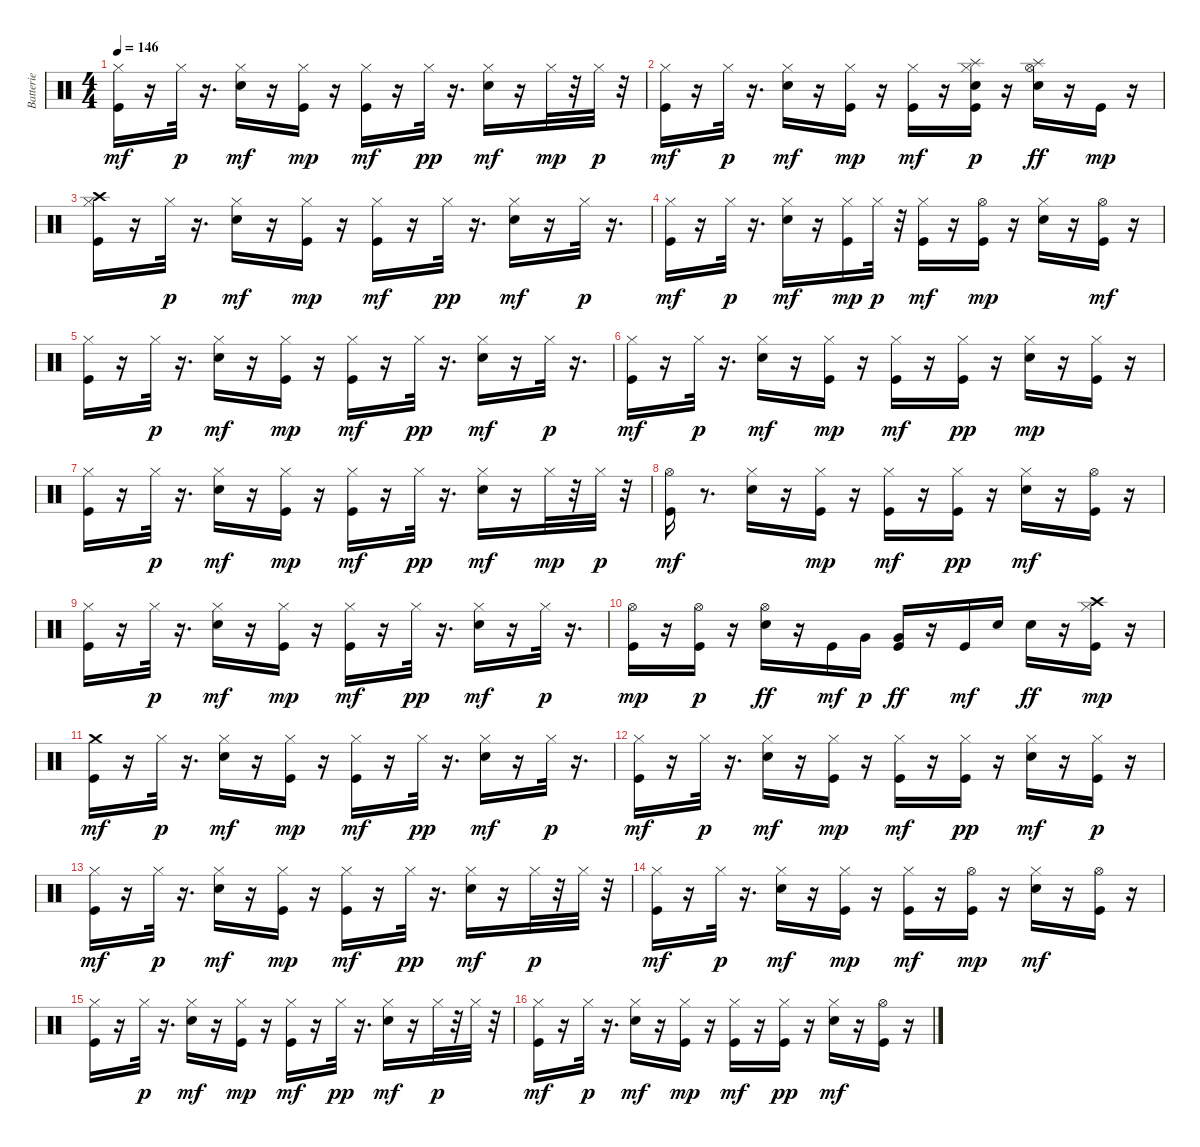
\track ("Batterie" "Batterie") {instrument percussion}
\staff {score}
\articulation defaults
\ts (4 4)
\tempo 146
\clef neutral
\ks c
("Kick (hit)" "Hi-Hat (closed)").16{dy mf} r.16 "Hi-Hat (closed)".32{dy p} r.16{d} ("Electric Snare (hit)" "Hi-Hat (closed)").16{dy mf} r.16 ("Kick (hit)" "Hi-Hat (closed)").16{dy mp} r.16 ("Kick (hit)" "Hi-Hat (closed)").16{dy mf} r.16 "Hi-Hat (closed)".32{dy pp} r.16{d} ("Electric Snare (hit)" "Hi-Hat (closed)").16{dy mf} r.16 "Hi-Hat (closed)".32{dy mp} r.32 "Hi-Hat (closed)".32{dy p} r.32 |
("Kick (hit)" "Hi-Hat (closed)").16{dy mf} r.16 "Hi-Hat (closed)".32{dy p} r.16{d} ("Electric Snare (hit)" "Hi-Hat (closed)").16{dy mf} r.16 ("Kick (hit)" "Hi-Hat (closed)").16{dy mp} r.16 ("Kick (hit)" "Hi-Hat (closed)").16{dy mf} r.16 ("Kick (hit)" "Electric Snare (hit)" "Hi-Hat (closed)" "Splash (hit)").16{dy p} r.16 ("Splash (hit)" "Electric Snare (hit)" "Hi-Hat (open)").16{dy ff} r.16 "Kick (hit)".16{dy mp} r.16 |
("Kick (hit)" "Hi-Hat (closed)" "Crash high (hit)").16 r.16 "Hi-Hat (closed)".32{dy p} r.16{d} ("Electric Snare (hit)" "Hi-Hat (closed)").16{dy mf} r.16 ("Kick (hit)" "Hi-Hat (closed)").16{dy mp} r.16 ("Kick (hit)" "Hi-Hat (closed)").16{dy mf} r.16 "Hi-Hat (closed)".32{dy pp} r.16{d} ("Electric Snare (hit)" "Hi-Hat (closed)").16{dy mf} r.16 "Hi-Hat (closed)".32{dy p} r.16{d} |
("Kick (hit)" "Hi-Hat (closed)").16{dy mf} r.16 "Hi-Hat (closed)".32{dy p} r.16{d} ("Electric Snare (hit)" "Hi-Hat (closed)").16{dy mf} r.16 ("Kick (hit)" "Hi-Hat (closed)").16{dy mp} "Hi-Hat (closed)".32{dy p} r.32 ("Kick (hit)" "Hi-Hat (closed)").16{dy mf} r.16 ("Kick (hit)" "Hi-Hat (open)").16{dy mp} r.16 ("Electric Snare (hit)" "Hi-Hat (closed)").16 r.16 ("Kick (hit)" "Hi-Hat (open)").16{dy mf} r.16 |
("Kick (hit)" "Hi-Hat (closed)").16 r.16 "Hi-Hat (closed)".32{dy p} r.16{d} ("Electric Snare (hit)" "Hi-Hat (closed)").16{dy mf} r.16 ("Kick (hit)" "Hi-Hat (closed)").16{dy mp} r.16 ("Kick (hit)" "Hi-Hat (closed)").16{dy mf} r.16 "Hi-Hat (closed)".32{dy pp} r.16{d} ("Electric Snare (hit)" "Hi-Hat (closed)").16{dy mf} r.16 "Hi-Hat (closed)".32{dy p} r.16{d} |
("Kick (hit)" "Hi-Hat (closed)").16{dy mf} r.16 "Hi-Hat (closed)".32{dy p} r.16{d} ("Electric Snare (hit)" "Hi-Hat (closed)").16{dy mf} r.16 ("Kick (hit)" "Hi-Hat (closed)").16{dy mp} r.16 ("Kick (hit)" "Hi-Hat (closed)").16{dy mf} r.16 ("Kick (hit)" "Hi-Hat (closed)").16{dy pp} r.16 ("Electric Snare (hit)" "Hi-Hat (closed)").16{dy mp} r.16 ("Kick (hit)" "Hi-Hat (closed)").16 r.16 |
("Kick (hit)" "Hi-Hat (closed)").16 r.16 "Hi-Hat (closed)".32{dy p} r.16{d} ("Electric Snare (hit)" "Hi-Hat (closed)").16{dy mf} r.16 ("Kick (hit)" "Hi-Hat (closed)").16{dy mp} r.16 ("Kick (hit)" "Hi-Hat (closed)").16{dy mf} r.16 "Hi-Hat (closed)".32{dy pp} r.16{d} ("Electric Snare (hit)" "Hi-Hat (closed)").16{dy mf} r.16 "Hi-Hat (closed)".32{dy mp} r.32 "Hi-Hat (closed)".32{dy p} r.32 |
("Kick (hit)" "Hi-Hat (open)").16{dy mf} r.8{d} ("Electric Snare (hit)" "Hi-Hat (closed)").16 r.16 ("Kick (hit)" "Hi-Hat (closed)").16{dy mp} r.16 ("Kick (hit)" "Hi-Hat (closed)").16{dy mf} r.16 ("Kick (hit)" "Hi-Hat (closed)").16{dy pp} r.16 ("Electric Snare (hit)" "Hi-Hat (closed)").16{dy mf} r.16 ("Kick (hit)" "Hi-Hat (open)").16 r.16 |
("Kick (hit)" "Hi-Hat (closed)").16 r.16 "Hi-Hat (closed)".32{dy p} r.16{d} ("Electric Snare (hit)" "Hi-Hat (closed)").16{dy mf} r.16 ("Kick (hit)" "Hi-Hat (closed)").16{dy mp} r.16 ("Kick (hit)" "Hi-Hat (closed)").16{dy mf} r.16 "Hi-Hat (closed)".32{dy pp} r.16{d} ("Electric Snare (hit)" "Hi-Hat (closed)").16{dy mf} r.16 "Hi-Hat (closed)".32{dy p} r.16{d} |
("Kick (hit)" "Hi-Hat (open)").16{dy mp} r.16 ("Kick (hit)" "Hi-Hat (open)").16{dy p} r.16 ("Electric Snare (hit)" "Hi-Hat (open)").16{dy ff} r.16 "Kick (hit)".16{dy mf} "Very Low Tom (hit)".16{dy p} ("Kick (hit)" "Very Low Tom (hit)").16{dy ff} r.16 "Kick (hit)".16{dy mf} "Electric Snare (hit)".16 "Electric Snare (hit)".16{dy ff} r.16 ("Kick (hit)" "Hi-Hat (closed)" "Crash high (hit)").16{dy mp} r.16 |
("Kick (hit)" "Crash medium (hit)").16{dy mf} r.16 "Hi-Hat (closed)".32{dy p} r.16{d} ("Electric Snare (hit)" "Hi-Hat (closed)").16{dy mf} r.16 ("Kick (hit)" "Hi-Hat (closed)").16{dy mp} r.16 ("Kick (hit)" "Hi-Hat (closed)").16{dy mf} r.16 "Hi-Hat (closed)".32{dy pp} r.16{d} ("Electric Snare (hit)" "Hi-Hat (closed)").16{dy mf} r.16 "Hi-Hat (closed)".32{dy p} r.16{d} |
("Kick (hit)" "Hi-Hat (closed)").16{dy mf} r.16 "Hi-Hat (closed)".32{dy p} r.16{d} ("Electric Snare (hit)" "Hi-Hat (closed)").16{dy mf} r.16 ("Kick (hit)" "Hi-Hat (closed)").16{dy mp} r.16 ("Kick (hit)" "Hi-Hat (closed)").16{dy mf} r.16 ("Kick (hit)" "Hi-Hat (closed)").16{dy pp} r.16 ("Electric Snare (hit)" "Hi-Hat (closed)").16{dy mf} r.16 ("Kick (hit)" "Hi-Hat (closed)").16{dy p} r.16 |
("Kick (hit)" "Hi-Hat (closed)").16{dy mf} r.16 "Hi-Hat (closed)".32{dy p} r.16{d} ("Electric Snare (hit)" "Hi-Hat (closed)").16{dy mf} r.16 ("Kick (hit)" "Hi-Hat (closed)").16{dy mp} r.16 ("Kick (hit)" "Hi-Hat (closed)").16{dy mf} r.16 "Hi-Hat (closed)".32{dy pp} r.16{d} ("Electric Snare (hit)" "Hi-Hat (closed)").16{dy mf} r.16 "Hi-Hat (closed)".32{dy p} r.32 "Hi-Hat (closed)".32 r.32 |
("Kick (hit)" "Hi-Hat (closed)").16{dy mf} r.16 "Hi-Hat (closed)".32{dy p} r.16{d} ("Electric Snare (hit)" "Hi-Hat (closed)").16{dy mf} r.16 ("Kick (hit)" "Hi-Hat (closed)").16{dy mp} r.16 ("Kick (hit)" "Hi-Hat (closed)").16{dy mf} r.16 ("Kick (hit)" "Hi-Hat (open)").16{dy mp} r.16 ("Electric Snare (hit)" "Hi-Hat (closed)").16{dy mf} r.16 ("Kick (hit)" "Hi-Hat (open)").16 r.16 |
("Kick (hit)" "Hi-Hat (closed)").16 r.16 "Hi-Hat (closed)".32{dy p} r.16{d} ("Electric Snare (hit)" "Hi-Hat (closed)").16{dy mf} r.16 ("Kick (hit)" "Hi-Hat (closed)").16{dy mp} r.16 ("Kick (hit)" "Hi-Hat (closed)").16{dy mf} r.16 "Hi-Hat (closed)".32{dy pp} r.16{d} ("Electric Snare (hit)" "Hi-Hat (closed)").16{dy mf} r.16 "Hi-Hat (closed)".32{dy p} r.32 "Hi-Hat (closed)".32 r.32 |
("Kick (hit)" "Hi-Hat (closed)").16{dy mf} r.16 "Hi-Hat (closed)".32{dy p} r.16{d} ("Electric Snare (hit)" "Hi-Hat (closed)").16{dy mf} r.16 ("Kick (hit)" "Hi-Hat (closed)").16{dy mp} r.16 ("Kick (hit)" "Hi-Hat (closed)").16{dy mf} r.16 ("Kick (hit)" "Hi-Hat (closed)").16{dy pp} r.16 ("Electric Snare (hit)" "Hi-Hat (closed)").16{dy mf} r.16 ("Kick (hit)" "Hi-Hat (open)").16 r.16
